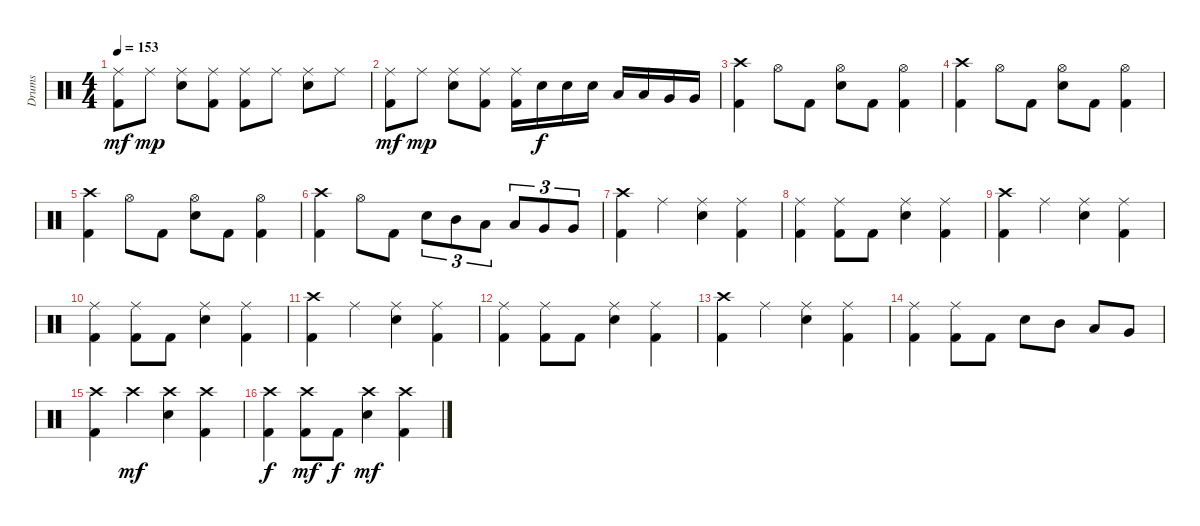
\track ("Drums" "Drums") {instrument percussion}
\staff {score}
\articulation defaults
\ts (4 4)
\tempo 153
\clef neutral
\ks c
("Ride (middle)" "Kick (hit) 2").8{dy mf} "Ride (middle)".8{dy mp} ("Ride (middle)" "Electric Snare (hit)").8 ("Ride (middle)" "Kick (hit) 2").8 ("Ride (middle)" "Kick (hit) 2").8 "Ride (middle)".8 ("Ride (middle)" "Electric Snare (hit)").8 "Ride (middle)".8 |
("Ride (middle)" "Kick (hit) 2").8{dy mf} "Ride (middle)".8{dy mp} ("Ride (middle)" "Electric Snare (hit)").8 ("Ride (middle)" "Kick (hit) 2").8 ("Ride (middle)" "Kick (hit) 2").16 "Electric Snare (hit)".16{dy f} "Electric Snare (hit)".16 "Electric Snare (hit)".16 "Low Tom (hit)".16 "Low Tom (hit)".16 "Very Low Tom (hit)".16 "Very Low Tom (hit)".16 |
("Crash high (hit)" "Kick (hit) 2").4 "Hi-Hat (open)".8 "Kick (hit) 2".8 ("Hi-Hat (open)" "Electric Snare (hit)").8 "Kick (hit) 2".8 ("Hi-Hat (open)" "Kick (hit) 2").4 |
("Crash high (hit)" "Kick (hit) 2").4 "Hi-Hat (open)".8 "Kick (hit) 2".8 ("Hi-Hat (open)" "Electric Snare (hit)").8 "Kick (hit) 2".8 ("Hi-Hat (open)" "Kick (hit) 2").4 |
("Crash high (hit)" "Kick (hit) 2").4 "Hi-Hat (open)".8 "Kick (hit) 2".8 ("Hi-Hat (open)" "Electric Snare (hit)").8 "Kick (hit) 2".8 ("Hi-Hat (open)" "Kick (hit) 2").4 |
("Crash high (hit)" "Kick (hit) 2").4 "Hi-Hat (open)".8 "Kick (hit) 2".8 "Electric Snare (hit)".8{tu (3 2)} "Mid Tom (hit)".8{tu (3 2)} "Low Tom (hit)".8{tu (3 2)} "Low Tom (hit)".8{tu (3 2)} "Very Low Tom (hit)".8{tu (3 2)} "Very Low Tom (hit)".8{tu (3 2)} |
("Crash high (hit)" "Kick (hit) 2").4 "Ride (middle)".4 ("Ride (middle)" "Electric Snare (hit)").4 ("Ride (middle)" "Kick (hit) 2").4 |
("Ride (middle)" "Kick (hit) 2").4 ("Ride (middle)" "Kick (hit) 2").8 "Kick (hit) 2".8 ("Ride (middle)" "Electric Snare (hit)").4 ("Ride (middle)" "Kick (hit) 2").4 |
("Crash high (hit)" "Kick (hit) 2").4 "Ride (middle)".4 ("Ride (middle)" "Electric Snare (hit)").4 ("Ride (middle)" "Kick (hit) 2").4 |
("Ride (middle)" "Kick (hit) 2").4 ("Ride (middle)" "Kick (hit) 2").8 "Kick (hit) 2".8 ("Ride (middle)" "Electric Snare (hit)").4 ("Ride (middle)" "Kick (hit) 2").4 |
("Crash high (hit)" "Kick (hit) 2").4 "Ride (middle)".4 ("Ride (middle)" "Electric Snare (hit)").4 ("Ride (middle)" "Kick (hit) 2").4 |
("Ride (middle)" "Kick (hit) 2").4 ("Ride (middle)" "Kick (hit) 2").8 "Kick (hit) 2".8 ("Ride (middle)" "Electric Snare (hit)").4 ("Ride (middle)" "Kick (hit) 2").4 |
("Crash high (hit)" "Kick (hit) 2").4 "Ride (middle)".4 ("Ride (middle)" "Electric Snare (hit)").4 ("Ride (middle)" "Kick (hit) 2").4 |
("Ride (middle)" "Kick (hit) 2").4 ("Ride (middle)" "Kick (hit) 2").8 "Kick (hit) 2".8 "Electric Snare (hit)".8 "Mid Tom (hit)".8 "Low Tom (hit)".8 "Very Low Tom (hit)".8 |
("Crash high (hit)" "Kick (hit) 2").4 "Crash high (hit)".4{dy mf} ("Crash high (hit)" "Electric Snare (hit)").4 ("Crash high (hit)" "Kick (hit) 2").4 |
("Crash high (hit)" "Kick (hit) 2").4{dy f} ("Crash high (hit)" "Kick (hit) 2").8{dy mf} "Kick (hit) 2".8{dy f} ("Crash high (hit)" "Electric Snare (hit)").4{dy mf} ("Crash high (hit)" "Kick (hit) 2").4
